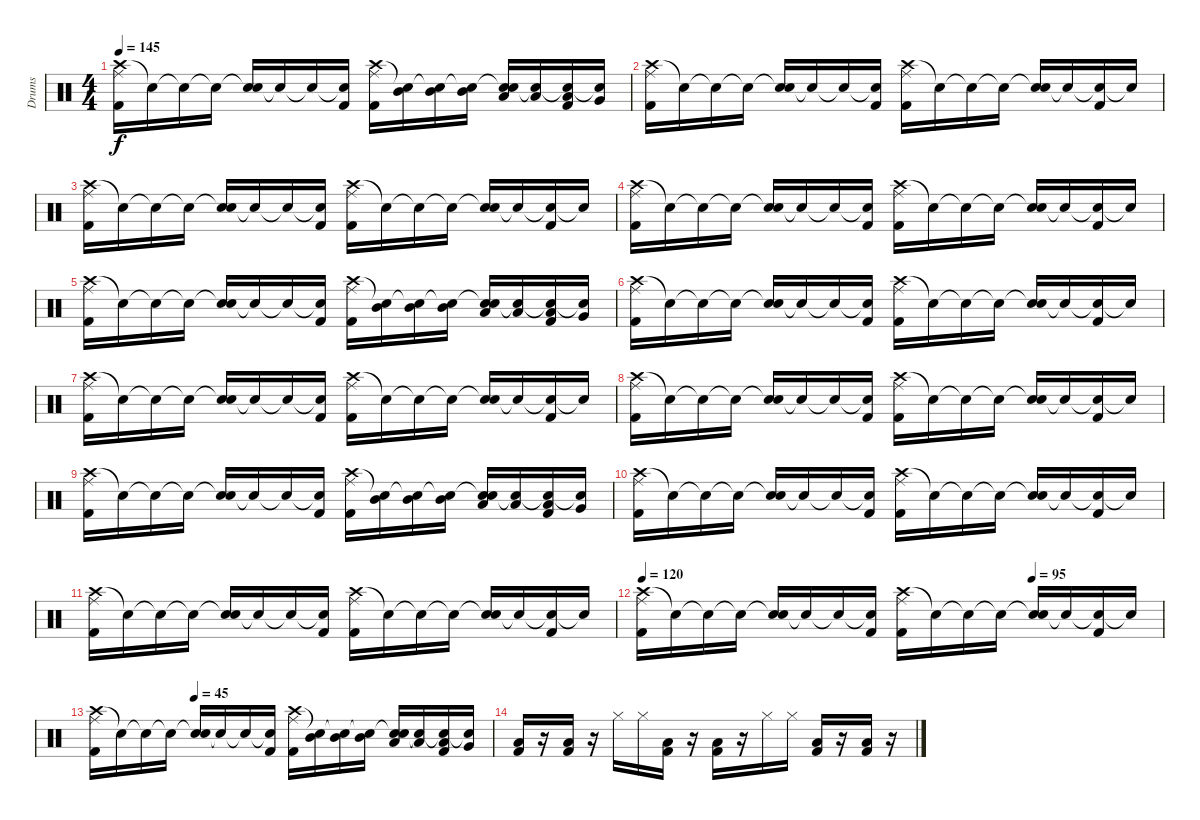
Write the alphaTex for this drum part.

\track ("Drums" "Drums") {instrument percussion}
\staff {score}
\articulation defaults
\ts (4 4)
\tempo 145
\clef neutral
\ks c
("Crash high (hit)" "Ride (middle)" "Kick (hit) 2").16{dy f} "Snare (hit)"{t}.16 "Snare (hit)"{t}.16 "Snare (hit)"{t}.16 ("Snare (hit)"{t} "Electric Snare (hit)").16 "Snare (hit)"{t}.16 "Snare (hit)"{t}.16 ("Snare (hit)"{t} "Kick (hit) 2").16 ("Crash high (hit)" "Ride (middle)" "Kick (hit) 2").16 ("Snare (hit)"{t} "Mid Tom (hit)").16 ("Snare (hit)"{t} "Mid Tom (hit)").16 ("Snare (hit)"{t} "Mid Tom (hit)").16 ("Snare (hit)"{t} "Low Tom (hit)" "Electric Snare (hit)").16 ("Snare (hit)"{t} "Low Tom (hit)").16 ("Snare (hit)"{t} "Low Tom (hit)" "Kick (hit) 2").16 ("Snare (hit)"{t} "Very Low Tom (hit)").16 |
("Crash high (hit)" "Ride (middle)" "Kick (hit) 2").16 "Snare (hit)"{t}.16 "Snare (hit)"{t}.16 "Snare (hit)"{t}.16 ("Snare (hit)"{t} "Electric Snare (hit)").16 "Snare (hit)"{t}.16 "Snare (hit)"{t}.16 ("Snare (hit)"{t} "Kick (hit) 2").16 ("Crash high (hit)" "Ride (middle)" "Kick (hit) 2").16 "Snare (hit)"{t}.16 "Snare (hit)"{t}.16 "Snare (hit)"{t}.16 ("Snare (hit)"{t} "Electric Snare (hit)").16 "Snare (hit)"{t}.16 ("Snare (hit)"{t} "Kick (hit) 2").16 "Snare (hit)"{t}.16 |
("Crash high (hit)" "Ride (middle)" "Kick (hit) 2").16 "Snare (hit)"{t}.16 "Snare (hit)"{t}.16 "Snare (hit)"{t}.16 ("Snare (hit)"{t} "Electric Snare (hit)").16 "Snare (hit)"{t}.16 "Snare (hit)"{t}.16 ("Snare (hit)"{t} "Kick (hit) 2").16 ("Crash high (hit)" "Ride (middle)" "Kick (hit) 2").16 "Snare (hit)"{t}.16 "Snare (hit)"{t}.16 "Snare (hit)"{t}.16 ("Snare (hit)"{t} "Electric Snare (hit)").16 "Snare (hit)"{t}.16 ("Snare (hit)"{t} "Kick (hit) 2").16 "Snare (hit)"{t}.16 |
("Crash high (hit)" "Ride (middle)" "Kick (hit) 2").16 "Snare (hit)"{t}.16 "Snare (hit)"{t}.16 "Snare (hit)"{t}.16 ("Snare (hit)"{t} "Electric Snare (hit)").16 "Snare (hit)"{t}.16 "Snare (hit)"{t}.16 ("Snare (hit)"{t} "Kick (hit) 2").16 ("Crash high (hit)" "Ride (middle)" "Kick (hit) 2").16 "Snare (hit)"{t}.16 "Snare (hit)"{t}.16 "Snare (hit)"{t}.16 ("Snare (hit)"{t} "Electric Snare (hit)").16 "Snare (hit)"{t}.16 ("Snare (hit)"{t} "Kick (hit) 2").16 "Snare (hit)"{t}.16 |
("Crash high (hit)" "Ride (middle)" "Kick (hit) 2").16 "Snare (hit)"{t}.16 "Snare (hit)"{t}.16 "Snare (hit)"{t}.16 ("Snare (hit)"{t} "Electric Snare (hit)").16 "Snare (hit)"{t}.16 "Snare (hit)"{t}.16 ("Snare (hit)"{t} "Kick (hit) 2").16 ("Crash high (hit)" "Ride (middle)" "Kick (hit) 2").16 ("Snare (hit)"{t} "Mid Tom (hit)").16 ("Snare (hit)"{t} "Mid Tom (hit)").16 ("Snare (hit)"{t} "Mid Tom (hit)").16 ("Snare (hit)"{t} "Low Tom (hit)" "Electric Snare (hit)").16 ("Snare (hit)"{t} "Low Tom (hit)").16 ("Snare (hit)"{t} "Low Tom (hit)" "Kick (hit) 2").16 ("Snare (hit)"{t} "Very Low Tom (hit)").16 |
("Crash high (hit)" "Ride (middle)" "Kick (hit) 2").16 "Snare (hit)"{t}.16 "Snare (hit)"{t}.16 "Snare (hit)"{t}.16 ("Snare (hit)"{t} "Electric Snare (hit)").16 "Snare (hit)"{t}.16 "Snare (hit)"{t}.16 ("Snare (hit)"{t} "Kick (hit) 2").16 ("Crash high (hit)" "Ride (middle)" "Kick (hit) 2").16 "Snare (hit)"{t}.16 "Snare (hit)"{t}.16 "Snare (hit)"{t}.16 ("Snare (hit)"{t} "Electric Snare (hit)").16 "Snare (hit)"{t}.16 ("Snare (hit)"{t} "Kick (hit) 2").16 "Snare (hit)"{t}.16 |
("Crash high (hit)" "Ride (middle)" "Kick (hit) 2").16 "Snare (hit)"{t}.16 "Snare (hit)"{t}.16 "Snare (hit)"{t}.16 ("Snare (hit)"{t} "Electric Snare (hit)").16 "Snare (hit)"{t}.16 "Snare (hit)"{t}.16 ("Snare (hit)"{t} "Kick (hit) 2").16 ("Crash high (hit)" "Ride (middle)" "Kick (hit) 2").16 "Snare (hit)"{t}.16 "Snare (hit)"{t}.16 "Snare (hit)"{t}.16 ("Snare (hit)"{t} "Electric Snare (hit)").16 "Snare (hit)"{t}.16 ("Snare (hit)"{t} "Kick (hit) 2").16 "Snare (hit)"{t}.16 |
("Crash high (hit)" "Ride (middle)" "Kick (hit) 2").16 "Snare (hit)"{t}.16 "Snare (hit)"{t}.16 "Snare (hit)"{t}.16 ("Snare (hit)"{t} "Electric Snare (hit)").16 "Snare (hit)"{t}.16 "Snare (hit)"{t}.16 ("Snare (hit)"{t} "Kick (hit) 2").16 ("Crash high (hit)" "Ride (middle)" "Kick (hit) 2").16 "Snare (hit)"{t}.16 "Snare (hit)"{t}.16 "Snare (hit)"{t}.16 ("Snare (hit)"{t} "Electric Snare (hit)").16 "Snare (hit)"{t}.16 ("Snare (hit)"{t} "Kick (hit) 2").16 "Snare (hit)"{t}.16 |
("Crash high (hit)" "Ride (middle)" "Kick (hit) 2").16 "Snare (hit)"{t}.16 "Snare (hit)"{t}.16 "Snare (hit)"{t}.16 ("Snare (hit)"{t} "Electric Snare (hit)").16 "Snare (hit)"{t}.16 "Snare (hit)"{t}.16 ("Snare (hit)"{t} "Kick (hit) 2").16 ("Crash high (hit)" "Ride (middle)" "Kick (hit) 2").16 ("Snare (hit)"{t} "Mid Tom (hit)").16 ("Snare (hit)"{t} "Mid Tom (hit)").16 ("Snare (hit)"{t} "Mid Tom (hit)").16 ("Snare (hit)"{t} "Low Tom (hit)" "Electric Snare (hit)").16 ("Snare (hit)"{t} "Low Tom (hit)").16 ("Snare (hit)"{t} "Low Tom (hit)" "Kick (hit) 2").16 ("Snare (hit)"{t} "Very Low Tom (hit)").16 |
("Crash high (hit)" "Ride (middle)" "Kick (hit) 2").16 "Snare (hit)"{t}.16 "Snare (hit)"{t}.16 "Snare (hit)"{t}.16 ("Snare (hit)"{t} "Electric Snare (hit)").16 "Snare (hit)"{t}.16 "Snare (hit)"{t}.16 ("Snare (hit)"{t} "Kick (hit) 2").16 ("Crash high (hit)" "Ride (middle)" "Kick (hit) 2").16 "Snare (hit)"{t}.16 "Snare (hit)"{t}.16 "Snare (hit)"{t}.16 ("Snare (hit)"{t} "Electric Snare (hit)").16 "Snare (hit)"{t}.16 ("Snare (hit)"{t} "Kick (hit) 2").16 "Snare (hit)"{t}.16 |
("Crash high (hit)" "Ride (middle)" "Kick (hit) 2").16 "Snare (hit)"{t}.16 "Snare (hit)"{t}.16 "Snare (hit)"{t}.16 ("Snare (hit)"{t} "Electric Snare (hit)").16 "Snare (hit)"{t}.16 "Snare (hit)"{t}.16 ("Snare (hit)"{t} "Kick (hit) 2").16 ("Crash high (hit)" "Ride (middle)" "Kick (hit) 2").16 "Snare (hit)"{t}.16 "Snare (hit)"{t}.16 "Snare (hit)"{t}.16 ("Snare (hit)"{t} "Electric Snare (hit)").16 "Snare (hit)"{t}.16 ("Snare (hit)"{t} "Kick (hit) 2").16 "Snare (hit)"{t}.16 |
\tempo 120
\tempo (95 0.75)
("Crash high (hit)" "Ride (middle)" "Kick (hit) 2").16 "Snare (hit)"{t}.16 "Snare (hit)"{t}.16 "Snare (hit)"{t}.16 ("Snare (hit)"{t} "Electric Snare (hit)").16 "Snare (hit)"{t}.16 "Snare (hit)"{t}.16 ("Snare (hit)"{t} "Kick (hit) 2").16 ("Crash high (hit)" "Ride (middle)" "Kick (hit) 2").16 "Snare (hit)"{t}.16 "Snare (hit)"{t}.16 "Snare (hit)"{t}.16 ("Snare (hit)"{t} "Electric Snare (hit)").16 "Snare (hit)"{t}.16 ("Snare (hit)"{t} "Kick (hit) 2").16 "Snare (hit)"{t}.16 |
\tempo (45 0.25)
("Crash high (hit)" "Ride (middle)" "Kick (hit) 2").16 "Snare (hit)"{t}.16 "Snare (hit)"{t}.16 "Snare (hit)"{t}.16 ("Snare (hit)"{t} "Electric Snare (hit)").16 "Snare (hit)"{t}.16 "Snare (hit)"{t}.16 ("Snare (hit)"{t} "Kick (hit) 2").16 ("Crash high (hit)" "Ride (middle)" "Kick (hit) 2").16 ("Snare (hit)"{t} "Mid Tom (hit)").16 ("Snare (hit)"{t} "Mid Tom (hit)").16 ("Snare (hit)"{t} "Mid Tom (hit)").16 ("Snare (hit)"{t} "Low Tom (hit)" "Electric Snare (hit)").16 ("Snare (hit)"{t} "Low Tom (hit)").16 ("Snare (hit)"{t} "Low Tom (hit)" "Kick (hit) 2").16 ("Snare (hit)"{t} "Very Low Tom (hit)").16 |
("Low Floor Tom (hit)" "Kick (hit) 2").16 r.16 ("Low Floor Tom (hit)" "Kick (hit) 2").16 r.16 "Hi-Hat (closed)".16 "Hi-Hat (closed)".16 ("Low Floor Tom (hit)" "Kick (hit) 2").16 r.16 ("Low Floor Tom (hit)" "Kick (hit) 2").16 r.16 "Hi-Hat (closed)".16 "Hi-Hat (closed)".16 ("Low Floor Tom (hit)" "Kick (hit) 2").16 r.16 ("Low Floor Tom (hit)" "Kick (hit) 2").16 r.16
